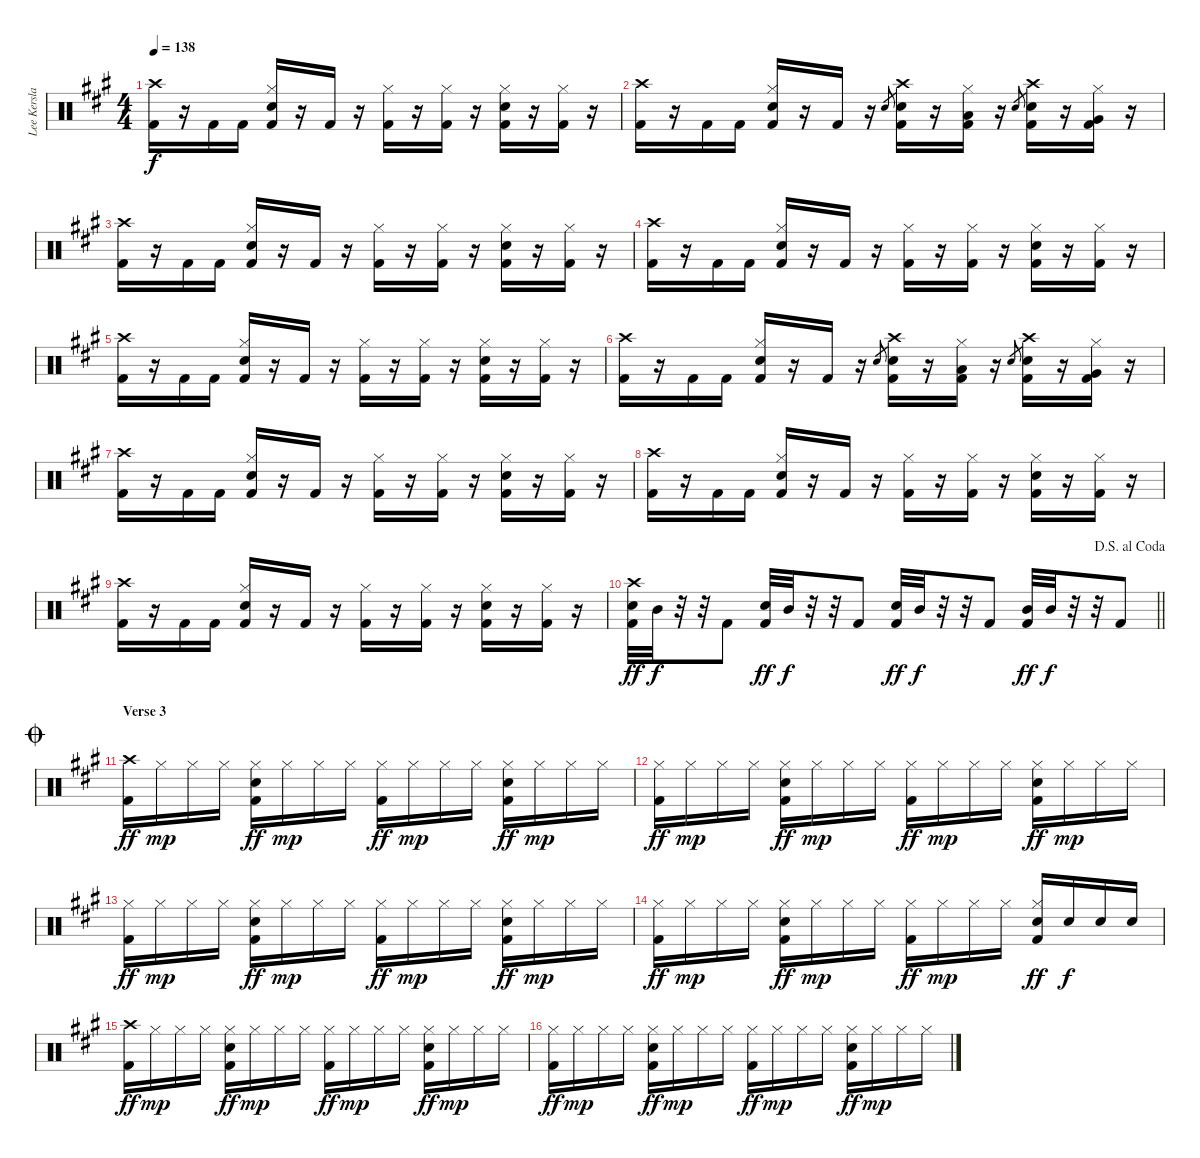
\track ("Lee Kerslake" "Lee Kersla") {instrument percussion}
\staff {score}
\articulation defaults
\ts (4 4)
\tempo 138
\clef neutral
\ks a
("Crash high (hit)" "Kick (hit) 2").16{dy f} r.16 "Kick (hit) 2".16 "Kick (hit) 2".16 ("Hi-Hat (closed)" "Snare (hit) 2" "Kick (hit) 2").16 r.16 "Kick (hit) 2".16 r.16 ("Hi-Hat (closed)" "Kick (hit) 2").16 r.16 ("Hi-Hat (closed)" "Kick (hit) 2").16 r.16 ("Hi-Hat (closed)" "Snare (hit) 2" "Kick (hit) 2").16 r.16 ("Hi-Hat (closed)" "Kick (hit) 2").16 r.16 |
("Crash high (hit)" "Kick (hit) 2").16 r.16 "Kick (hit) 2".16 "Kick (hit) 2".16 ("Hi-Hat (closed)" "Snare (hit) 2" "Kick (hit) 2").16 r.16 "Kick (hit) 2".16 r.16 "Snare (hit) 2".8{gr} ("Crash high (hit)" "Snare (hit) 2" "Kick (hit) 2").16 r.16 ("Hi-Hat (closed)" "Low Tom (hit)" "Kick (hit) 2").16 r.16 "Snare (hit) 2".8{gr} ("Crash high (hit)" "Snare (hit) 2" "Kick (hit) 2").16 r.16 ("Hi-Hat (closed)" "Very Low Tom (hit)" "Kick (hit) 2").16 r.16 |
("Crash high (hit)" "Kick (hit) 2").16 r.16 "Kick (hit) 2".16 "Kick (hit) 2".16 ("Hi-Hat (closed)" "Snare (hit) 2" "Kick (hit) 2").16 r.16 "Kick (hit) 2".16 r.16 ("Hi-Hat (closed)" "Kick (hit) 2").16 r.16 ("Hi-Hat (closed)" "Kick (hit) 2").16 r.16 ("Hi-Hat (closed)" "Snare (hit) 2" "Kick (hit) 2").16 r.16 ("Hi-Hat (closed)" "Kick (hit) 2").16 r.16 |
("Crash high (hit)" "Kick (hit) 2").16 r.16 "Kick (hit) 2".16 "Kick (hit) 2".16 ("Hi-Hat (closed)" "Snare (hit) 2" "Kick (hit) 2").16 r.16 "Kick (hit) 2".16 r.16 ("Hi-Hat (closed)" "Kick (hit) 2").16 r.16 ("Hi-Hat (closed)" "Kick (hit) 2").16 r.16 ("Hi-Hat (closed)" "Snare (hit) 2" "Kick (hit) 2").16 r.16 ("Hi-Hat (closed)" "Kick (hit) 2").16 r.16 |
("Crash high (hit)" "Kick (hit) 2").16 r.16 "Kick (hit) 2".16 "Kick (hit) 2".16 ("Hi-Hat (closed)" "Snare (hit) 2" "Kick (hit) 2").16 r.16 "Kick (hit) 2".16 r.16 ("Hi-Hat (closed)" "Kick (hit) 2").16 r.16 ("Hi-Hat (closed)" "Kick (hit) 2").16 r.16 ("Hi-Hat (closed)" "Snare (hit) 2" "Kick (hit) 2").16 r.16 ("Hi-Hat (closed)" "Kick (hit) 2").16 r.16 |
("Crash high (hit)" "Kick (hit) 2").16 r.16 "Kick (hit) 2".16 "Kick (hit) 2".16 ("Hi-Hat (closed)" "Snare (hit) 2" "Kick (hit) 2").16 r.16 "Kick (hit) 2".16 r.16 "Snare (hit) 2".8{gr} ("Crash high (hit)" "Snare (hit) 2" "Kick (hit) 2").16 r.16 ("Hi-Hat (closed)" "Low Tom (hit)" "Kick (hit) 2").16 r.16 "Snare (hit) 2".8{gr} ("Crash high (hit)" "Snare (hit) 2" "Kick (hit) 2").16 r.16 ("Hi-Hat (closed)" "Very Low Tom (hit)" "Kick (hit) 2").16 r.16 |
("Crash high (hit)" "Kick (hit) 2").16 r.16 "Kick (hit) 2".16 "Kick (hit) 2".16 ("Hi-Hat (closed)" "Snare (hit) 2" "Kick (hit) 2").16 r.16 "Kick (hit) 2".16 r.16 ("Hi-Hat (closed)" "Kick (hit) 2").16 r.16 ("Hi-Hat (closed)" "Kick (hit) 2").16 r.16 ("Hi-Hat (closed)" "Snare (hit) 2" "Kick (hit) 2").16 r.16 ("Hi-Hat (closed)" "Kick (hit) 2").16 r.16 |
("Crash high (hit)" "Kick (hit) 2").16 r.16 "Kick (hit) 2".16 "Kick (hit) 2".16 ("Hi-Hat (closed)" "Snare (hit) 2" "Kick (hit) 2").16 r.16 "Kick (hit) 2".16 r.16 ("Hi-Hat (closed)" "Kick (hit) 2").16 r.16 ("Hi-Hat (closed)" "Kick (hit) 2").16 r.16 ("Hi-Hat (closed)" "Snare (hit) 2" "Kick (hit) 2").16 r.16 ("Hi-Hat (closed)" "Kick (hit) 2").16 r.16 |
("Crash high (hit)" "Kick (hit) 2").16 r.16 "Kick (hit) 2".16 "Kick (hit) 2".16 ("Hi-Hat (closed)" "Snare (hit) 2" "Kick (hit) 2").16 r.16 "Kick (hit) 2".16 r.16 ("Hi-Hat (closed)" "Kick (hit) 2").16 r.16 ("Hi-Hat (closed)" "Kick (hit) 2").16 r.16 ("Hi-Hat (closed)" "Snare (hit) 2" "Kick (hit) 2").16 r.16 ("Hi-Hat (closed)" "Kick (hit) 2").16 r.16 |
\jump dalsegnoalcoda
\barLineRight lightlight
("Crash high (hit)" "Snare (hit) 2" "Kick (hit) 2").32{dy ff} "Mid Tom (hit)".32{dy f} r.32 r.32 "Kick (hit) 2".8 ("Snare (hit) 2" "Kick (hit) 2").32{dy ff} "Mid Tom (hit)".32{dy f} r.32 r.32 "Kick (hit) 2".8 ("Snare (hit) 2" "Kick (hit) 2").32{dy ff} "Mid Tom (hit)".32{dy f} r.32 r.32 "Kick (hit) 2".8 ("Mid Tom (hit)" "Kick (hit) 2").32{dy ff} "Mid Tom (hit)".32{dy f} r.32 r.32 "Kick (hit) 2".8 |
\section ("" "Verse 3")
\jump coda
("Crash high (hit)" "Kick (hit) 2").16{dy ff} "Hi-Hat (closed)".16{dy mp} "Hi-Hat (closed)".16 "Hi-Hat (closed)".16 ("Hi-Hat (closed)" "Snare (hit) 2" "Kick (hit) 2").16{dy ff} "Hi-Hat (closed)".16{dy mp} "Hi-Hat (closed)".16 "Hi-Hat (closed)".16 ("Hi-Hat (closed)" "Kick (hit) 2").16{dy ff} "Hi-Hat (closed)".16{dy mp} "Hi-Hat (closed)".16 "Hi-Hat (closed)".16 ("Hi-Hat (closed)" "Snare (hit) 2" "Kick (hit) 2").16{dy ff} "Hi-Hat (closed)".16{dy mp} "Hi-Hat (closed)".16 "Hi-Hat (closed)".16 |
("Hi-Hat (closed)" "Kick (hit) 2").16{dy ff} "Hi-Hat (closed)".16{dy mp} "Hi-Hat (closed)".16 "Hi-Hat (closed)".16 ("Hi-Hat (closed)" "Snare (hit) 2" "Kick (hit) 2").16{dy ff} "Hi-Hat (closed)".16{dy mp} "Hi-Hat (closed)".16 "Hi-Hat (closed)".16 ("Hi-Hat (closed)" "Kick (hit) 2").16{dy ff} "Hi-Hat (closed)".16{dy mp} "Hi-Hat (closed)".16 "Hi-Hat (closed)".16 ("Hi-Hat (closed)" "Snare (hit) 2" "Kick (hit) 2").16{dy ff} "Hi-Hat (closed)".16{dy mp} "Hi-Hat (closed)".16 "Hi-Hat (closed)".16 |
("Hi-Hat (closed)" "Kick (hit) 2").16{dy ff} "Hi-Hat (closed)".16{dy mp} "Hi-Hat (closed)".16 "Hi-Hat (closed)".16 ("Hi-Hat (closed)" "Snare (hit) 2" "Kick (hit) 2").16{dy ff} "Hi-Hat (closed)".16{dy mp} "Hi-Hat (closed)".16 "Hi-Hat (closed)".16 ("Hi-Hat (closed)" "Kick (hit) 2").16{dy ff} "Hi-Hat (closed)".16{dy mp} "Hi-Hat (closed)".16 "Hi-Hat (closed)".16 ("Hi-Hat (closed)" "Snare (hit) 2" "Kick (hit) 2").16{dy ff} "Hi-Hat (closed)".16{dy mp} "Hi-Hat (closed)".16 "Hi-Hat (closed)".16 |
("Hi-Hat (closed)" "Kick (hit) 2").16{dy ff} "Hi-Hat (closed)".16{dy mp} "Hi-Hat (closed)".16 "Hi-Hat (closed)".16 ("Hi-Hat (closed)" "Snare (hit) 2" "Kick (hit) 2").16{dy ff} "Hi-Hat (closed)".16{dy mp} "Hi-Hat (closed)".16 "Hi-Hat (closed)".16 ("Hi-Hat (closed)" "Kick (hit) 2").16{dy ff} "Hi-Hat (closed)".16{dy mp} "Hi-Hat (closed)".16 "Hi-Hat (closed)".16 ("Hi-Hat (closed)" "Snare (hit) 2" "Kick (hit) 2").16{dy ff} "Snare (hit) 2".16{dy f} "Snare (hit) 2".16 "Snare (hit) 2".16 |
("Crash high (hit)" "Kick (hit) 2").16{dy ff} "Hi-Hat (closed)".16{dy mp} "Hi-Hat (closed)".16 "Hi-Hat (closed)".16 ("Hi-Hat (closed)" "Snare (hit) 2" "Kick (hit) 2").16{dy ff} "Hi-Hat (closed)".16{dy mp} "Hi-Hat (closed)".16 "Hi-Hat (closed)".16 ("Hi-Hat (closed)" "Kick (hit) 2").16{dy ff} "Hi-Hat (closed)".16{dy mp} "Hi-Hat (closed)".16 "Hi-Hat (closed)".16 ("Hi-Hat (closed)" "Snare (hit) 2" "Kick (hit) 2").16{dy ff} "Hi-Hat (closed)".16{dy mp} "Hi-Hat (closed)".16 "Hi-Hat (closed)".16 |
("Hi-Hat (closed)" "Kick (hit) 2").16{dy ff} "Hi-Hat (closed)".16{dy mp} "Hi-Hat (closed)".16 "Hi-Hat (closed)".16 ("Hi-Hat (closed)" "Snare (hit) 2" "Kick (hit) 2").16{dy ff} "Hi-Hat (closed)".16{dy mp} "Hi-Hat (closed)".16 "Hi-Hat (closed)".16 ("Hi-Hat (closed)" "Kick (hit) 2").16{dy ff} "Hi-Hat (closed)".16{dy mp} "Hi-Hat (closed)".16 "Hi-Hat (closed)".16 ("Hi-Hat (closed)" "Snare (hit) 2" "Kick (hit) 2").16{dy ff} "Hi-Hat (closed)".16{dy mp} "Hi-Hat (closed)".16 "Hi-Hat (closed)".16
